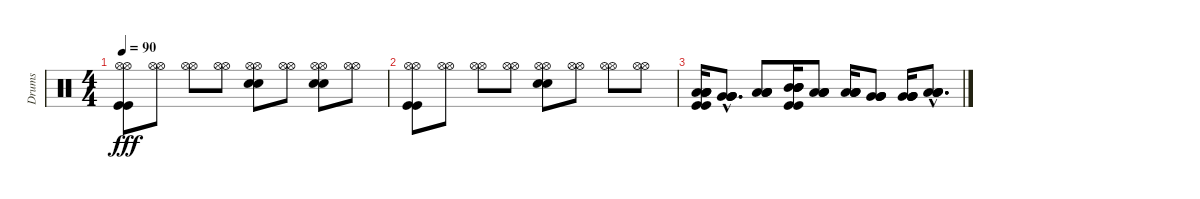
\track ("Drums" "Drums") {instrument percussion}
\staff {score}
\articulation defaults
\ts (4 4)
\tempo 90
\clef neutral
\ks c
("Kick (hit)" "Hi-Hat (open)" "Hi-Hat (open)" "Kick (hit)").8{dy fff volume 3} ("Hi-Hat (open)" "Hi-Hat (open)").8 ("Hi-Hat (open)" "Hi-Hat (open)").8 ("Hi-Hat (open)" "Hi-Hat (open)").8 ("Electric Snare (hit)" "Hi-Hat (open)" "Hi-Hat (open)" "Electric Snare (hit)").8 ("Hi-Hat (open)" "Hi-Hat (open)").8 ("Electric Snare (hit)" "Hi-Hat (open)" "Hi-Hat (open)" "Electric Snare (hit)").8 ("Hi-Hat (open)" "Hi-Hat (open)").8 |
("Kick (hit)" "Hi-Hat (open)" "Hi-Hat (open)" "Kick (hit)").8{volume 2} ("Hi-Hat (open)" "Hi-Hat (open)").8 ("Hi-Hat (open)" "Hi-Hat (open)").8 ("Hi-Hat (open)" "Hi-Hat (open)").8 ("Electric Snare (hit)" "Hi-Hat (open)" "Hi-Hat (open)" "Electric Snare (hit)").8 ("Hi-Hat (open)" "Hi-Hat (open)").8 ("Hi-Hat (open)" "Hi-Hat (open)").8 ("Hi-Hat (open)" "Hi-Hat (open)").8 |
("Kick (hit)" "Low Tom (hit)" "Low Tom (hit)" "Low Tom (hit)" "Low Tom (hit)" "Kick (hit)").16{volume 0} ("Very Low Tom (hit)"{hac} "Very Low Tom (hit)"{hac} "Very Low Tom (hit)"{hac} "Very Low Tom (hit)"{hac}).8{d} ("Low Floor Tom (hit)" "Low Floor Tom (hit)" "Low Floor Tom (hit)" "Low Floor Tom (hit)").8 ("Kick (hit)" "Mid Tom (hit)" "Mid Tom (hit)" "Mid Tom (hit)" "Mid Tom (hit)" "Kick (hit)").16 ("Low Tom (hit)" "Low Tom (hit)" "Low Tom (hit)" "Low Tom (hit)").8 ("Low Tom (hit)" "Low Tom (hit)" "Low Tom (hit)" "Low Tom (hit)").16 ("Very Low Tom (hit)" "Very Low Tom (hit)" "Very Low Tom (hit)" "Very Low Tom (hit)").8 ("Very Low Tom (hit)" "Very Low Tom (hit)" "Very Low Tom (hit)" "Very Low Tom (hit)").16 ("Low Floor Tom (hit)"{hac} "Low Floor Tom (hit)"{hac} "Low Floor Tom (hit)"{hac} "Low Floor Tom (hit)"{hac}).8{d}
